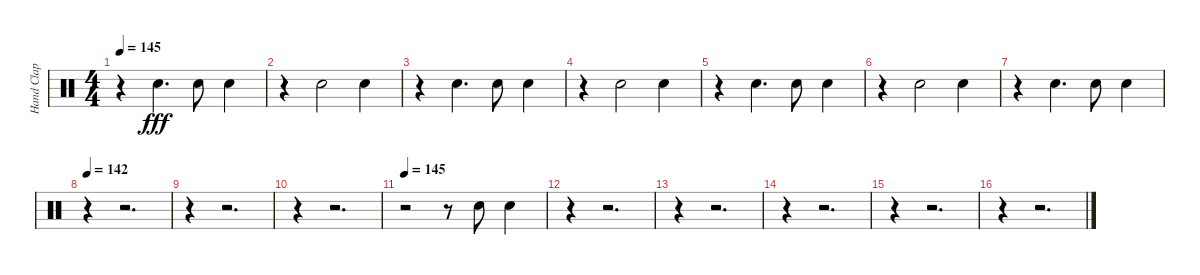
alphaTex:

\track ("Hand Clap" "Hand Clap") {instrument percussion}
\staff {score}
\articulation defaults
\ts (4 4)
\tempo 145
\clef neutral
\ks c
r.4{dy fff} "Hand Clap (hit)".4{d} "Hand Clap (hit)".8 "Hand Clap (hit)".4 |
r.4 "Hand Clap (hit)".2 "Hand Clap (hit)".4 |
r.4 "Hand Clap (hit)".4{d} "Hand Clap (hit)".8 "Hand Clap (hit)".4 |
r.4 "Hand Clap (hit)".2 "Hand Clap (hit)".4 |
r.4 "Hand Clap (hit)".4{d} "Hand Clap (hit)".8 "Hand Clap (hit)".4 |
r.4 "Hand Clap (hit)".2 "Hand Clap (hit)".4 |
r.4 "Hand Clap (hit)".4{d} "Hand Clap (hit)".8 "Hand Clap (hit)".4 |
\tempo 142
r.4 r.2{d} |
r.4 r.2{d} |
r.4 r.2{d} |
\tempo 145
r.2 r.8 "Hand Clap (hit)".8 "Hand Clap (hit)".4 |
r.4 r.2{d} |
r.4 r.2{d} |
r.4 r.2{d} |
r.4 r.2{d} |
r.4 r.2{d}
